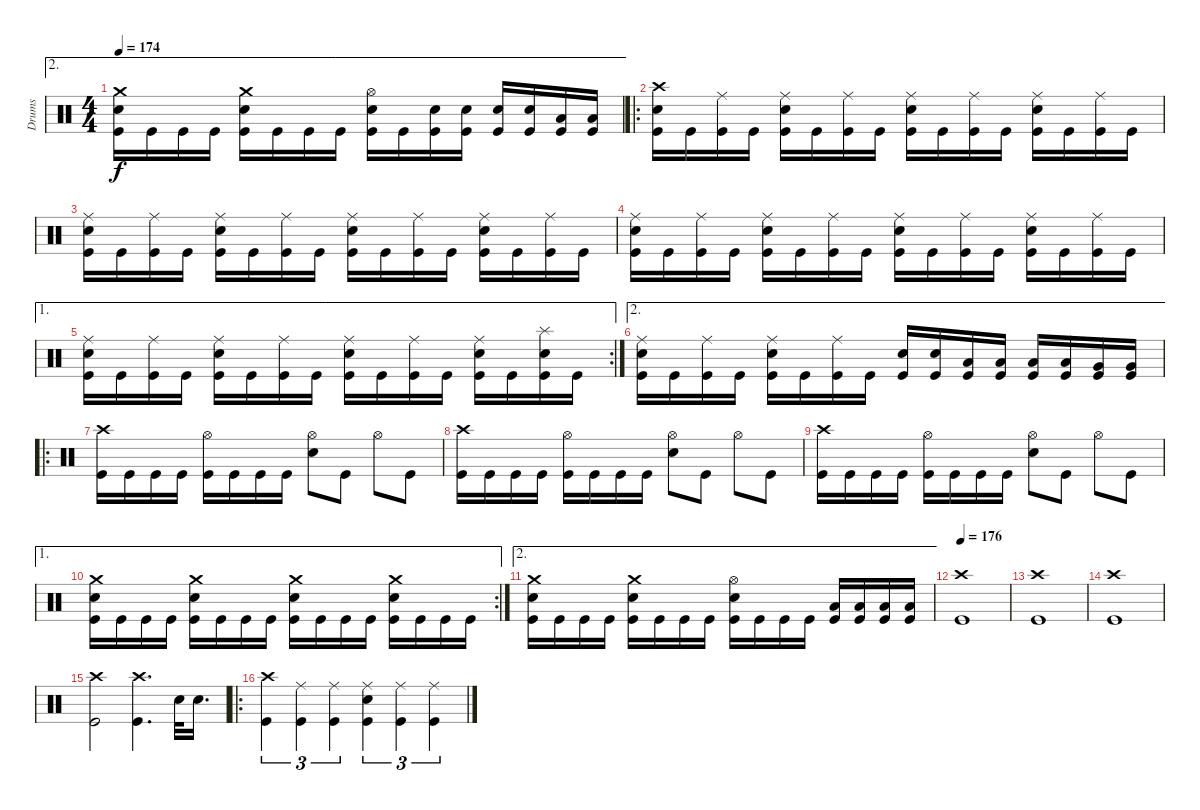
\track ("Drums" "Drums") {instrument percussion}
\staff {score}
\articulation defaults
\ae 2
\ts (4 4)
\tempo 174
\clef neutral
\ks c
("Crash medium (hit)" "Electric Snare (hit)" "Kick (hit)").16{dy f} "Kick (hit)".16 "Kick (hit)".16 "Kick (hit)".16 ("Crash medium (hit)" "Electric Snare (hit)" "Kick (hit)").16 "Kick (hit)".16 "Kick (hit)".16 "Kick (hit)".16 ("Hi-Hat (open)" "Electric Snare (hit)" "Kick (hit)").16 "Kick (hit)".16 ("Electric Snare (hit)" "Kick (hit)").16 ("Electric Snare (hit)" "Kick (hit)").16 ("Electric Snare (hit)" "Kick (hit)").16 ("Electric Snare (hit)" "Kick (hit)").16 ("Low Tom (hit)" "Kick (hit)").16 ("Low Tom (hit)" "Kick (hit)").16 |
\ro
("Crash high (hit)" "Electric Snare (hit)" "Kick (hit)").16 "Kick (hit)".16 ("Ride (middle)" "Kick (hit)").16 "Kick (hit)".16 ("Ride (middle)" "Electric Snare (hit)" "Kick (hit)").16 "Kick (hit)".16 ("Ride (middle)" "Kick (hit)").16 "Kick (hit)".16 ("Ride (middle)" "Electric Snare (hit)" "Kick (hit)").16 "Kick (hit)".16 ("Ride (middle)" "Kick (hit)").16 "Kick (hit)".16 ("Ride (middle)" "Electric Snare (hit)" "Kick (hit)").16 "Kick (hit)".16 ("Ride (middle)" "Kick (hit)").16 "Kick (hit)".16 |
("Ride (middle)" "Electric Snare (hit)" "Kick (hit)").16 "Kick (hit)".16 ("Ride (middle)" "Kick (hit)").16 "Kick (hit)".16 ("Ride (middle)" "Electric Snare (hit)" "Kick (hit)").16 "Kick (hit)".16 ("Ride (middle)" "Kick (hit)").16 "Kick (hit)".16 ("Ride (middle)" "Electric Snare (hit)" "Kick (hit)").16 "Kick (hit)".16 ("Ride (middle)" "Kick (hit)").16 "Kick (hit)".16 ("Ride (middle)" "Electric Snare (hit)" "Kick (hit)").16 "Kick (hit)".16 ("Ride (middle)" "Kick (hit)").16 "Kick (hit)".16 |
("Ride (middle)" "Electric Snare (hit)" "Kick (hit)").16 "Kick (hit)".16 ("Ride (middle)" "Kick (hit)").16 "Kick (hit)".16 ("Ride (middle)" "Electric Snare (hit)" "Kick (hit)").16 "Kick (hit)".16 ("Ride (middle)" "Kick (hit)").16 "Kick (hit)".16 ("Ride (middle)" "Electric Snare (hit)" "Kick (hit)").16 "Kick (hit)".16 ("Ride (middle)" "Kick (hit)").16 "Kick (hit)".16 ("Ride (middle)" "Electric Snare (hit)" "Kick (hit)").16 "Kick (hit)".16 ("Ride (middle)" "Kick (hit)").16 "Kick (hit)".16 |
\ae 1
\rc 2
("Ride (middle)" "Electric Snare (hit)" "Kick (hit)").16 "Kick (hit)".16 ("Ride (middle)" "Kick (hit)").16 "Kick (hit)".16 ("Ride (middle)" "Electric Snare (hit)" "Kick (hit)").16 "Kick (hit)".16 ("Ride (middle)" "Kick (hit)").16 "Kick (hit)".16 ("Ride (middle)" "Electric Snare (hit)" "Kick (hit)").16 "Kick (hit)".16 ("Ride (middle)" "Kick (hit)").16 "Kick (hit)".16 ("Ride (middle)" "Electric Snare (hit)" "Kick (hit)").16 "Kick (hit)".16 ("Splash (hit)" "Electric Snare (hit)" "Kick (hit)").16 "Kick (hit)".16 |
\ae 2
("Ride (middle)" "Electric Snare (hit)" "Kick (hit)").16 "Kick (hit)".16 ("Ride (middle)" "Kick (hit)").16 "Kick (hit)".16 ("Ride (middle)" "Electric Snare (hit)" "Kick (hit)").16 "Kick (hit)".16 ("Ride (middle)" "Kick (hit)").16 "Kick (hit)".16 ("Electric Snare (hit)" "Kick (hit)").16 ("Electric Snare (hit)" "Kick (hit)").16 ("Low Tom (hit)" "Kick (hit)").16 ("Low Tom (hit)" "Kick (hit)").16 ("Low Tom (hit)" "Kick (hit)").16 ("Low Tom (hit)" "Kick (hit)").16 ("Very Low Tom (hit)" "Kick (hit)").16 ("Very Low Tom (hit)" "Kick (hit)").16 |
\ro
("Crash high (hit)" "Kick (hit)").16 "Kick (hit)".16 "Kick (hit)".16 "Kick (hit)".16 ("Hi-Hat (open)" "Kick (hit)").16 "Kick (hit)".16 "Kick (hit)".16 "Kick (hit)".16 ("Hi-Hat (open)" "Electric Snare (hit)").8 "Kick (hit)".8 "Hi-Hat (open)".8 "Kick (hit)".8 |
("Crash high (hit)" "Kick (hit)").16 "Kick (hit)".16 "Kick (hit)".16 "Kick (hit)".16 ("Hi-Hat (open)" "Kick (hit)").16 "Kick (hit)".16 "Kick (hit)".16 "Kick (hit)".16 ("Hi-Hat (open)" "Electric Snare (hit)").8 "Kick (hit)".8 "Hi-Hat (open)".8 "Kick (hit)".8 |
("Crash high (hit)" "Kick (hit)").16 "Kick (hit)".16 "Kick (hit)".16 "Kick (hit)".16 ("Hi-Hat (open)" "Kick (hit)").16 "Kick (hit)".16 "Kick (hit)".16 "Kick (hit)".16 ("Hi-Hat (open)" "Electric Snare (hit)").8 "Kick (hit)".8 "Hi-Hat (open)".8 "Kick (hit)".8 |
\ae 1
\rc 2
("Crash medium (hit)" "Electric Snare (hit)" "Kick (hit)").16 "Kick (hit)".16 "Kick (hit)".16 "Kick (hit)".16 ("Crash medium (hit)" "Electric Snare (hit)" "Kick (hit)").16 "Kick (hit)".16 "Kick (hit)".16 "Kick (hit)".16 ("Crash medium (hit)" "Electric Snare (hit)" "Kick (hit)").16 "Kick (hit)".16 "Kick (hit)".16 "Kick (hit)".16 ("Crash medium (hit)" "Electric Snare (hit)" "Kick (hit)").16 "Kick (hit)".16 "Kick (hit)".16 "Kick (hit)".16 |
\ae 2
("Crash medium (hit)" "Electric Snare (hit)" "Kick (hit)").16 "Kick (hit)".16 "Kick (hit)".16 "Kick (hit)".16 ("Crash medium (hit)" "Electric Snare (hit)" "Kick (hit)").16 "Kick (hit)".16 "Kick (hit)".16 "Kick (hit)".16 ("Hi-Hat (open)" "Electric Snare (hit)" "Kick (hit)").16 "Kick (hit)".16 "Kick (hit)".16 "Kick (hit)".16 ("Low Tom (hit)" "Kick (hit)").16 ("Low Tom (hit)" "Kick (hit)").16 ("Low Tom (hit)" "Kick (hit)").16 ("Low Tom (hit)" "Kick (hit)").16 |
\tempo 176
("Crash high (hit)" "Kick (hit)").1 |
("Crash high (hit)" "Kick (hit)").1 |
("Crash high (hit)" "Kick (hit)").1 |
("Crash high (hit)" "Kick (hit)").2 ("Crash high (hit)" "Kick (hit)").4{d} "Electric Snare (hit)".32 "Electric Snare (hit)".16{d} |
\ro
("Crash high (hit)" "Kick (hit)").4{tu (3 2)} ("Ride (middle)" "Kick (hit)").4{tu (3 2)} ("Ride (middle)" "Kick (hit)").4{tu (3 2)} ("Ride (middle)" "Electric Snare (hit)" "Kick (hit)").4{tu (3 2)} ("Ride (middle)" "Kick (hit)").4{tu (3 2)} ("Ride (middle)" "Kick (hit)").4{tu (3 2)}
